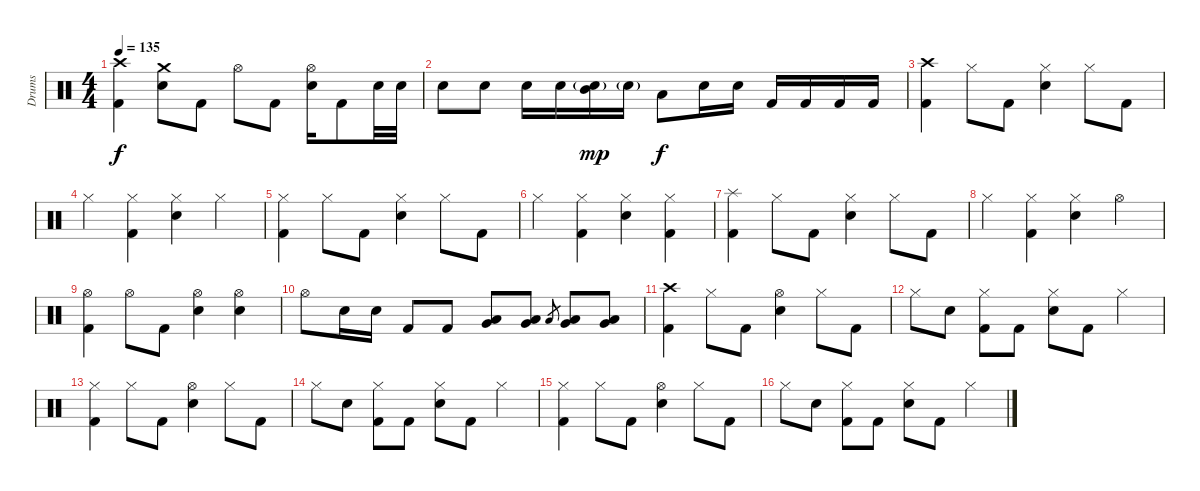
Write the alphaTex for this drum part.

\track ("Drums" "Drums") {instrument percussion}
\staff {score}
\articulation defaults
\ts (4 4)
\tempo 135
\clef neutral
\ks c
("Crash high (hit)" "Kick (hit) 2").4{dy f} ("Crash medium (hit)" "Electric Snare (hit)").8 "Kick (hit) 2".8 "Hi-Hat (open)".8 "Kick (hit) 2".8 ("Hi-Hat (open)" "Electric Snare (hit)").16 "Kick (hit) 2".8 "Electric Snare (hit)".32 "Electric Snare (hit)".32 |
"Electric Snare (hit)".8 "Electric Snare (hit)".8 "Electric Snare (hit)".16 "Electric Snare (hit)".16 ("Mid Tom (hit)" "Electric Snare (hit)"{g}).16{dy mp} "Electric Snare (hit)"{g}.16 "Low Tom (hit)".8{dy f} "Electric Snare (hit)".16 "Electric Snare (hit)".16 "Kick (hit) 2".16 "Kick (hit) 2".16 "Kick (hit) 2".16 "Kick (hit) 2".16 |
("Crash high (hit)" "Kick (hit) 2").4 "Hi-Hat (closed)".8 "Kick (hit) 2".8 ("Hi-Hat (closed)" "Electric Snare (hit)").4 "Hi-Hat (closed)".8 "Kick (hit) 2".8 |
"Hi-Hat (closed)".4 ("Hi-Hat (closed)" "Kick (hit) 2").4 ("Hi-Hat (closed)" "Electric Snare (hit)").4 "Hi-Hat (closed)".4 |
("Hi-Hat (closed)" "Kick (hit) 2").4 "Hi-Hat (closed)".8 "Kick (hit) 2".8 ("Hi-Hat (closed)" "Electric Snare (hit)").4 "Hi-Hat (closed)".8 "Kick (hit) 2".8 |
"Hi-Hat (closed)".4 ("Hi-Hat (closed)" "Kick (hit) 2").4 ("Hi-Hat (closed)" "Electric Snare (hit)").4 ("Hi-Hat (closed)" "Kick (hit) 2").4 |
("Splash (hit)" "Kick (hit) 2").4 "Hi-Hat (closed)".8 "Kick (hit) 2".8 ("Hi-Hat (closed)" "Electric Snare (hit)").4 "Hi-Hat (closed)".8 "Kick (hit) 2".8 |
"Hi-Hat (closed)".4 ("Hi-Hat (closed)" "Kick (hit) 2").4 ("Hi-Hat (closed)" "Electric Snare (hit)").4 "Hi-Hat (open)".4 |
("Hi-Hat (open)" "Kick (hit) 2").4 "Hi-Hat (open)".8 "Kick (hit) 2".8 ("Hi-Hat (open)" "Electric Snare (hit)").4 ("Hi-Hat (open)" "Electric Snare (hit)").4 |
"Hi-Hat (open)".8 "Electric Snare (hit)".16 "Electric Snare (hit)".16 "Kick (hit) 2".8 "Kick (hit) 2".8 ("Low Tom (hit)" "Very Low Tom (hit)").8 ("Low Tom (hit)" "Very Low Tom (hit)").8 "Low Floor Tom (hit)".8{gr} ("Very Low Tom (hit)" "Low Floor Tom (hit)").8 ("Very Low Tom (hit)" "Low Floor Tom (hit)").8 |
("Crash high (hit)" "Kick (hit) 2").4 "Hi-Hat (closed)".8 "Kick (hit) 2".8 ("Hi-Hat (open)" "Electric Snare (hit)").4 "Hi-Hat (closed)".8 "Kick (hit) 2".8 |
"Hi-Hat (closed)".8 "Electric Snare (hit)".8 ("Hi-Hat (closed)" "Kick (hit) 2").8 "Kick (hit) 2".8 ("Hi-Hat (closed)" "Electric Snare (hit)").8 "Kick (hit) 2".8 "Hi-Hat (closed)".4 |
("Hi-Hat (closed)" "Kick (hit) 2").4 "Hi-Hat (closed)".8 "Kick (hit) 2".8 ("Hi-Hat (open)" "Electric Snare (hit)").4 "Hi-Hat (closed)".8 "Kick (hit) 2".8 |
"Hi-Hat (closed)".8 "Electric Snare (hit)".8 ("Hi-Hat (closed)" "Kick (hit) 2").8 "Kick (hit) 2".8 ("Hi-Hat (closed)" "Electric Snare (hit)").8 "Kick (hit) 2".8 "Hi-Hat (closed)".4 |
("Hi-Hat (closed)" "Kick (hit) 2").4 "Hi-Hat (closed)".8 "Kick (hit) 2".8 ("Hi-Hat (open)" "Electric Snare (hit)").4 "Hi-Hat (closed)".8 "Kick (hit) 2".8 |
"Hi-Hat (closed)".8 "Electric Snare (hit)".8 ("Hi-Hat (closed)" "Kick (hit) 2").8 "Kick (hit) 2".8 ("Hi-Hat (closed)" "Electric Snare (hit)").8 "Kick (hit) 2".8 "Hi-Hat (closed)".4
